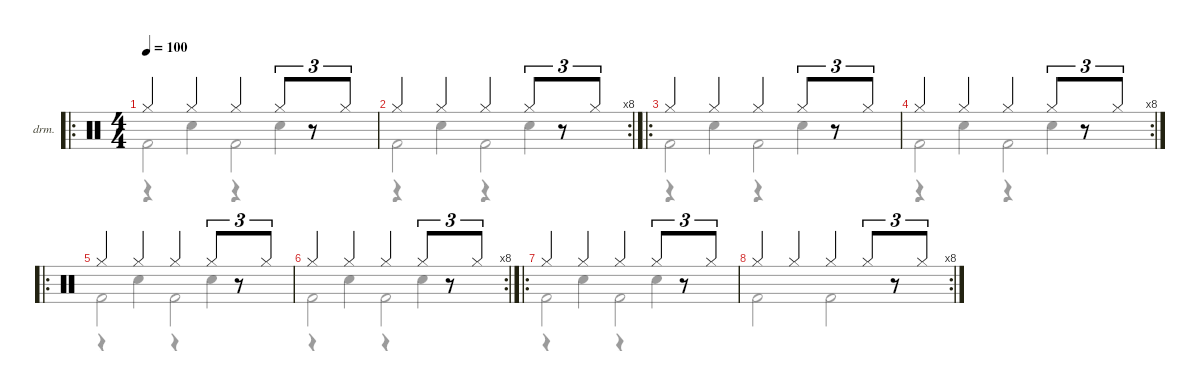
\defaultSystemsLayout 4
\hideDynamics
\bracketExtendMode nobrackets
\firstSystemTrackNameOrientation horizontal
\otherSystemsTrackNameOrientation horizontal
\track ("Drumkit" "drm.") {defaultSystemsLayout 1 multiBarRest instrument percussion}
\staff {score}
\articulation defaults
\voice
\ro
\ts (4 4)
\tempo 100
\clef neutral
\ks c "Hi-Hat (closed)".4{dy fff beam Up} "Hi-Hat (closed)".4{beam Up} "Hi-Hat (closed)".4{beam Up} "Hi-Hat (closed)".8{tu (3 2) beam Up}
r.8{tu (3 2) beam Up} "Hi-Hat (closed)".8{tu (3 2) beam Up} |
\rc 8 "Hi-Hat (closed)".4{beam Up} "Hi-Hat (closed)".4{beam Up} "Hi-Hat (closed)".4{beam Up} "Hi-Hat (closed)".8{tu (3 2) beam Up}
r.8{tu (3 2) beam Up} "Hi-Hat (closed)".8{tu (3 2) beam Up} |
\ro "Hi-Hat (closed)".4{beam Up} "Hi-Hat (closed)".4{beam Up} "Hi-Hat (closed)".4{beam Up} "Hi-Hat (closed)".8{tu (3 2) beam Up}
r.8{tu (3 2) beam Up} "Hi-Hat (closed)".8{tu (3 2) beam Up} |
\rc 8 "Hi-Hat (closed)".4{beam Up} "Hi-Hat (closed)".4{beam Up} "Hi-Hat (closed)".4{beam Up} "Hi-Hat (closed)".8{tu (3 2) beam Up}
r.8{tu (3 2) beam Up} "Hi-Hat (closed)".8{tu (3 2) beam Up} |
\ro "Hi-Hat (closed)".4{beam Up} "Hi-Hat (closed)".4{beam Up} "Hi-Hat (closed)".4{beam Up} "Hi-Hat (closed)".8{tu (3 2) beam Up}
r.8{tu (3 2) beam Up} "Hi-Hat (closed)".8{tu (3 2) beam Up} |
\rc 8 "Hi-Hat (closed)".4{beam Up} "Hi-Hat (closed)".4{beam Up} "Hi-Hat (closed)".4{beam Up} "Hi-Hat (closed)".8{tu (3 2) beam Up}
r.8{tu (3 2) beam Up} "Hi-Hat (closed)".8{tu (3 2) beam Up} |
\ro "Hi-Hat (closed)".4{beam Up} "Hi-Hat (closed)".4{beam Up} "Hi-Hat (closed)".4{beam Up} "Hi-Hat (closed)".8{tu (3 2) beam Up}
r.8{tu (3 2) beam Up} "Hi-Hat (closed)".8{tu (3 2) beam Up} |
\rc 8 "Hi-Hat (closed)".4{beam Up} "Hi-Hat (closed)".4{beam Up} "Hi-Hat (closed)".4{beam Up} "Hi-Hat (closed)".8{tu (3 2) beam Up}
r.8{tu (3 2) beam Up} "Hi-Hat (closed)".8{tu (3 2) beam Up} |
|
\voice
\clef neutral
\ottava regular
\simile none
\ks c "Kick (hit) 2".2{dy p} "Kick (hit) 2".2
|
"Kick (hit) 2".2 "Kick (hit) 2".2 |
"Kick (hit) 2".2 "Kick (hit) 2".2 |
"Kick (hit) 2".2 "Kick (hit) 2".2 |
"Kick (hit) 2".2 "Kick (hit) 2".2 |
"Kick (hit) 2".2 "Kick (hit) 2".2 |
"Kick (hit) 2".2 "Kick (hit) 2".2 |
"Kick (hit) 2".2 "Kick (hit) 2".2 |
|
\voice
\clef neutral
\ottava regular
\simile none
\ks c
r.4{dy p} "Snare (hit) 2".4 r.4 "Snare (hit) 2".4 |
r.4 "Snare (hit) 2".4 r.4 "Snare (hit) 2".4 |
r.4 "Snare (hit) 2".4 r.4 "Snare (hit) 2".4 |
r.4 "Snare (hit) 2".4 r.4 "Snare (hit) 2".4 |
r.4 "Snare (hit) 2".4 r.4 "Snare (hit) 2".4 |
r.4 "Snare (hit) 2".4 r.4 "Snare (hit) 2".4 |
r.4 "Snare (hit) 2".4 r.4 "Snare (hit) 2".4 |
|
|
